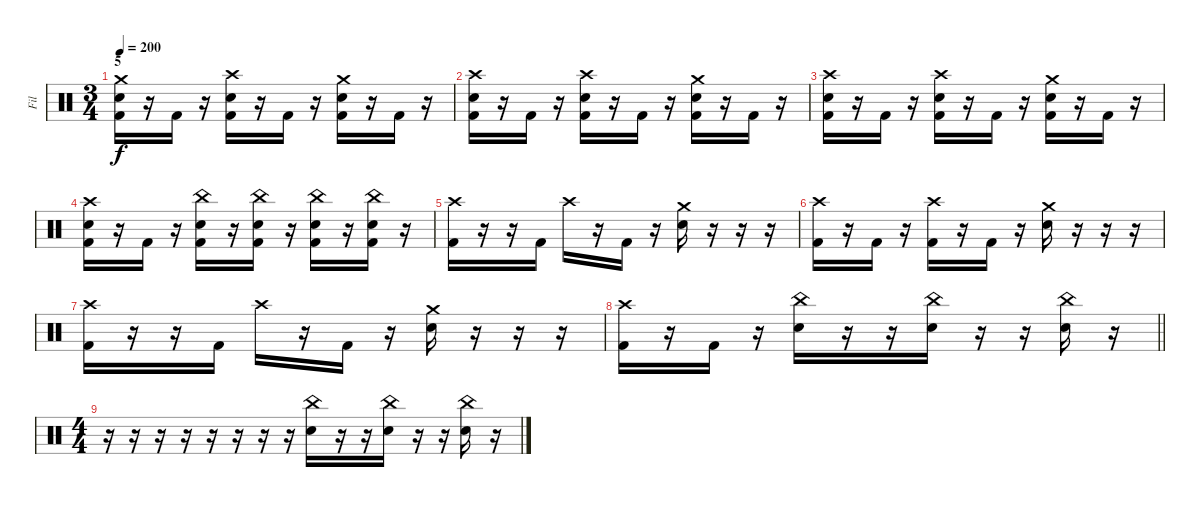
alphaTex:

\track ("Fil" "Fil") {instrument percussion}
\staff {score}
\articulation defaults
\ts (3 4)
\section ("" "5")
\tempo 200
\clef neutral
\ks c
("Crash medium (hit)" "Electric Snare (hit)" "Kick (hit) 2").16{dy f} r.16 "Kick (hit) 2".16 r.16 ("Crash high (hit)" "Electric Snare (hit)" "Kick (hit) 2").16 r.16 "Kick (hit) 2".16 r.16 ("Crash medium (hit)" "Electric Snare (hit)" "Kick (hit) 2").16 r.16 "Kick (hit) 2".16 r.16 |
("Crash high (hit)" "Electric Snare (hit)" "Kick (hit) 2").16 r.16 "Kick (hit) 2".16 r.16 ("Crash high (hit)" "Electric Snare (hit)" "Kick (hit) 2").16 r.16 "Kick (hit) 2".16 r.16 ("Crash medium (hit)" "Electric Snare (hit)" "Kick (hit) 2").16 r.16 "Kick (hit) 2".16 r.16 |
("Crash high (hit)" "Electric Snare (hit)" "Kick (hit) 2").16 r.16 "Kick (hit) 2".16 r.16 ("Crash high (hit)" "Electric Snare (hit)" "Kick (hit) 2").16 r.16 "Kick (hit) 2".16 r.16 ("Crash medium (hit)" "Electric Snare (hit)" "Kick (hit) 2").16 r.16 "Kick (hit) 2".16 r.16 |
("Crash high (hit)" "Electric Snare (hit)" "Kick (hit) 2").16 r.16 "Kick (hit) 2".16 r.16 ("China (hit)" "Electric Snare (hit)" "Kick (hit) 2").16 r.16 ("China (hit)" "Electric Snare (hit)" "Kick (hit) 2").16 r.16 ("China (hit)" "Electric Snare (hit)" "Kick (hit) 2").16 r.16 ("China (hit)" "Electric Snare (hit)" "Kick (hit) 2").16 r.16 |
("Crash high (hit)" "Kick (hit) 2").16 r.16 r.16 "Kick (hit) 2".16 "Crash high (hit)".16 r.16 "Kick (hit) 2".16 r.16 ("Crash medium (hit)" "Electric Snare (hit)").16 r.16 r.16 r.16 |
("Crash high (hit)" "Kick (hit) 2").16 r.16 "Kick (hit) 2".16 r.16 ("Crash high (hit)" "Kick (hit) 2").16 r.16 "Kick (hit) 2".16 r.16 ("Crash medium (hit)" "Electric Snare (hit)").16 r.16 r.16 r.16 |
("Crash high (hit)" "Kick (hit) 2").16 r.16 r.16 "Kick (hit) 2".16 "Crash high (hit)".16 r.16 "Kick (hit) 2".16 r.16 ("Crash medium (hit)" "Electric Snare (hit)").16 r.16 r.16 r.16 |
\barLineRight lightlight
("Crash high (hit)" "Kick (hit) 2").16 r.16 "Kick (hit) 2".16 r.16 ("China (hit)" "Electric Snare (hit)").16 r.16 r.16 ("China (hit)" "Electric Snare (hit)").16 r.16 r.16 ("China (hit)" "Electric Snare (hit)").16 r.16 |
\ts (4 4)
r.16 r.16 r.16 r.16 r.16 r.16 r.16 r.16 ("China (hit)" "Electric Snare (hit)").16 r.16 r.16 ("China (hit)" "Electric Snare (hit)").16 r.16 r.16 ("China (hit)" "Electric Snare (hit)").16 r.16
